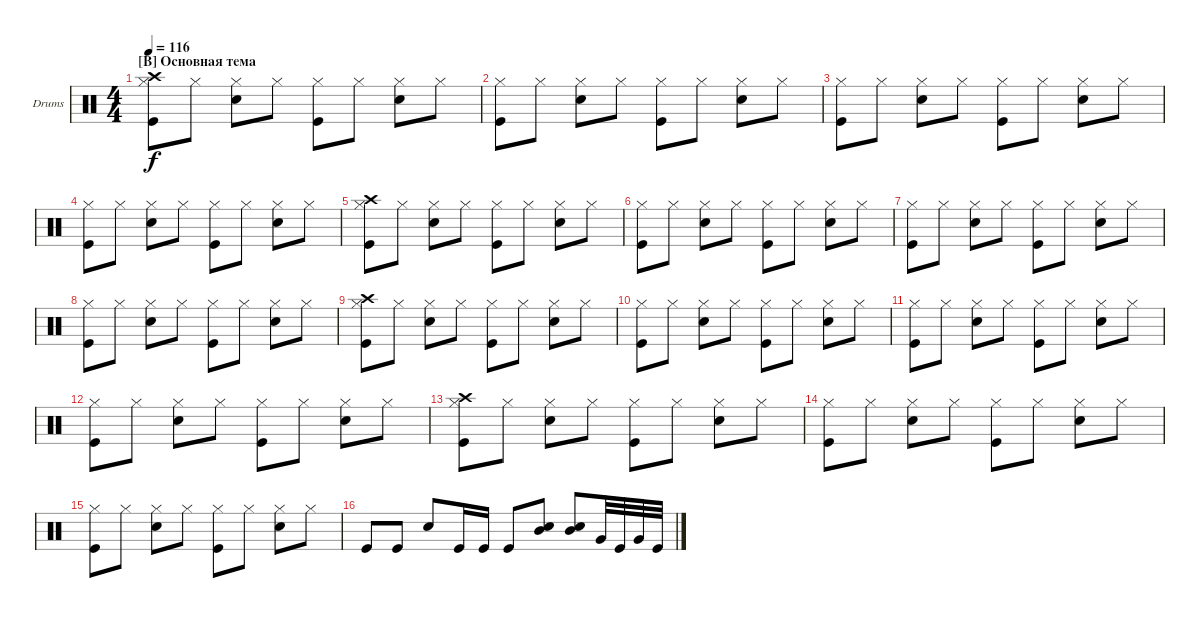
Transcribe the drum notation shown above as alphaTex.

\defaultSystemsLayout 4
\bracketExtendMode groupsimilarinstruments
\firstSystemTrackNameOrientation horizontal
\otherSystemsTrackNameOrientation horizontal
\track ("Drumkit" "Drums") {instrument percussion}
\staff {score}
\articulation defaults
\ts (4 4)
\section ("B" "Основная тема")
\tempo 116
\clef neutral
\ks c
("Hi-Hat (closed)" "Crash high (hit)" "Kick (hit)").8{dy f} "Hi-Hat (closed)".8 ("Hi-Hat (closed)" "Snare (hit) 2").8 "Hi-Hat (closed)".8 ("Hi-Hat (closed)" "Kick (hit)").8 "Hi-Hat (closed)".8 ("Hi-Hat (closed)" "Snare (hit) 2").8 "Hi-Hat (closed)".8 |
("Hi-Hat (closed)" "Kick (hit)").8 "Hi-Hat (closed)".8 ("Hi-Hat (closed)" "Snare (hit) 2").8 "Hi-Hat (closed)".8 ("Hi-Hat (closed)" "Kick (hit)").8 "Hi-Hat (closed)".8 ("Hi-Hat (closed)" "Snare (hit) 2").8 "Hi-Hat (closed)".8 |
("Hi-Hat (closed)" "Kick (hit)").8 "Hi-Hat (closed)".8 ("Hi-Hat (closed)" "Snare (hit) 2").8 "Hi-Hat (closed)".8 ("Hi-Hat (closed)" "Kick (hit)").8 "Hi-Hat (closed)".8 ("Hi-Hat (closed)" "Snare (hit) 2").8 "Hi-Hat (closed)".8 |
("Hi-Hat (closed)" "Kick (hit)").8 "Hi-Hat (closed)".8 ("Hi-Hat (closed)" "Snare (hit) 2").8 "Hi-Hat (closed)".8 ("Hi-Hat (closed)" "Kick (hit)").8 "Hi-Hat (closed)".8 ("Hi-Hat (closed)" "Snare (hit) 2").8 "Hi-Hat (closed)".8 |
("Hi-Hat (closed)" "Crash high (hit)" "Kick (hit)").8 "Hi-Hat (closed)".8 ("Hi-Hat (closed)" "Snare (hit) 2").8 "Hi-Hat (closed)".8 ("Hi-Hat (closed)" "Kick (hit)").8 "Hi-Hat (closed)".8 ("Hi-Hat (closed)" "Snare (hit) 2").8 "Hi-Hat (closed)".8 |
("Hi-Hat (closed)" "Kick (hit)").8 "Hi-Hat (closed)".8 ("Hi-Hat (closed)" "Snare (hit) 2").8 "Hi-Hat (closed)".8 ("Hi-Hat (closed)" "Kick (hit)").8 "Hi-Hat (closed)".8 ("Hi-Hat (closed)" "Snare (hit) 2").8 "Hi-Hat (closed)".8 |
("Hi-Hat (closed)" "Kick (hit)").8 "Hi-Hat (closed)".8 ("Hi-Hat (closed)" "Snare (hit) 2").8 "Hi-Hat (closed)".8 ("Hi-Hat (closed)" "Kick (hit)").8 "Hi-Hat (closed)".8 ("Hi-Hat (closed)" "Snare (hit) 2").8 "Hi-Hat (closed)".8 |
("Hi-Hat (closed)" "Kick (hit)").8 "Hi-Hat (closed)".8 ("Hi-Hat (closed)" "Snare (hit) 2").8 "Hi-Hat (closed)".8 ("Hi-Hat (closed)" "Kick (hit)").8 "Hi-Hat (closed)".8 ("Hi-Hat (closed)" "Snare (hit) 2").8 "Hi-Hat (closed)".8 |
("Hi-Hat (closed)" "Crash high (hit)" "Kick (hit)").8 "Hi-Hat (closed)".8 ("Hi-Hat (closed)" "Snare (hit) 2").8 "Hi-Hat (closed)".8 ("Hi-Hat (closed)" "Kick (hit)").8 "Hi-Hat (closed)".8 ("Hi-Hat (closed)" "Snare (hit) 2").8 "Hi-Hat (closed)".8 |
("Hi-Hat (closed)" "Kick (hit)").8 "Hi-Hat (closed)".8 ("Hi-Hat (closed)" "Snare (hit) 2").8 "Hi-Hat (closed)".8 ("Hi-Hat (closed)" "Kick (hit)").8 "Hi-Hat (closed)".8 ("Hi-Hat (closed)" "Snare (hit) 2").8 "Hi-Hat (closed)".8 |
("Hi-Hat (closed)" "Kick (hit)").8 "Hi-Hat (closed)".8 ("Hi-Hat (closed)" "Snare (hit) 2").8 "Hi-Hat (closed)".8 ("Hi-Hat (closed)" "Kick (hit)").8 "Hi-Hat (closed)".8 ("Hi-Hat (closed)" "Snare (hit) 2").8 "Hi-Hat (closed)".8 |
("Hi-Hat (closed)" "Kick (hit)").8 "Hi-Hat (closed)".8 ("Hi-Hat (closed)" "Snare (hit) 2").8 "Hi-Hat (closed)".8 ("Hi-Hat (closed)" "Kick (hit)").8 "Hi-Hat (closed)".8 ("Hi-Hat (closed)" "Snare (hit) 2").8 "Hi-Hat (closed)".8 |
("Hi-Hat (closed)" "Crash high (hit)" "Kick (hit)").8 "Hi-Hat (closed)".8 ("Hi-Hat (closed)" "Snare (hit) 2").8 "Hi-Hat (closed)".8 ("Hi-Hat (closed)" "Kick (hit)").8 "Hi-Hat (closed)".8 ("Hi-Hat (closed)" "Snare (hit) 2").8 "Hi-Hat (closed)".8 |
("Hi-Hat (closed)" "Kick (hit)").8 "Hi-Hat (closed)".8 ("Hi-Hat (closed)" "Snare (hit) 2").8 "Hi-Hat (closed)".8 ("Hi-Hat (closed)" "Kick (hit)").8 "Hi-Hat (closed)".8 ("Hi-Hat (closed)" "Snare (hit) 2").8 "Hi-Hat (closed)".8 |
("Hi-Hat (closed)" "Kick (hit)").8 "Hi-Hat (closed)".8 ("Hi-Hat (closed)" "Snare (hit) 2").8 "Hi-Hat (closed)".8 ("Hi-Hat (closed)" "Kick (hit)").8 "Hi-Hat (closed)".8 ("Hi-Hat (closed)" "Snare (hit) 2").8 "Hi-Hat (closed)".8 |
"Kick (hit)".8 "Kick (hit)".8 "Snare (hit) 2".8 "Kick (hit)".16 "Kick (hit)".16 "Kick (hit)".8 ("Snare (hit) 2" "Mid Tom (hit)").8 ("Snare (hit) 2" "Mid Tom (hit)").8 "Very Low Tom (hit)".32 "Kick (hit)".32 "Very Low Tom (hit)".32 "Kick (hit)".32
